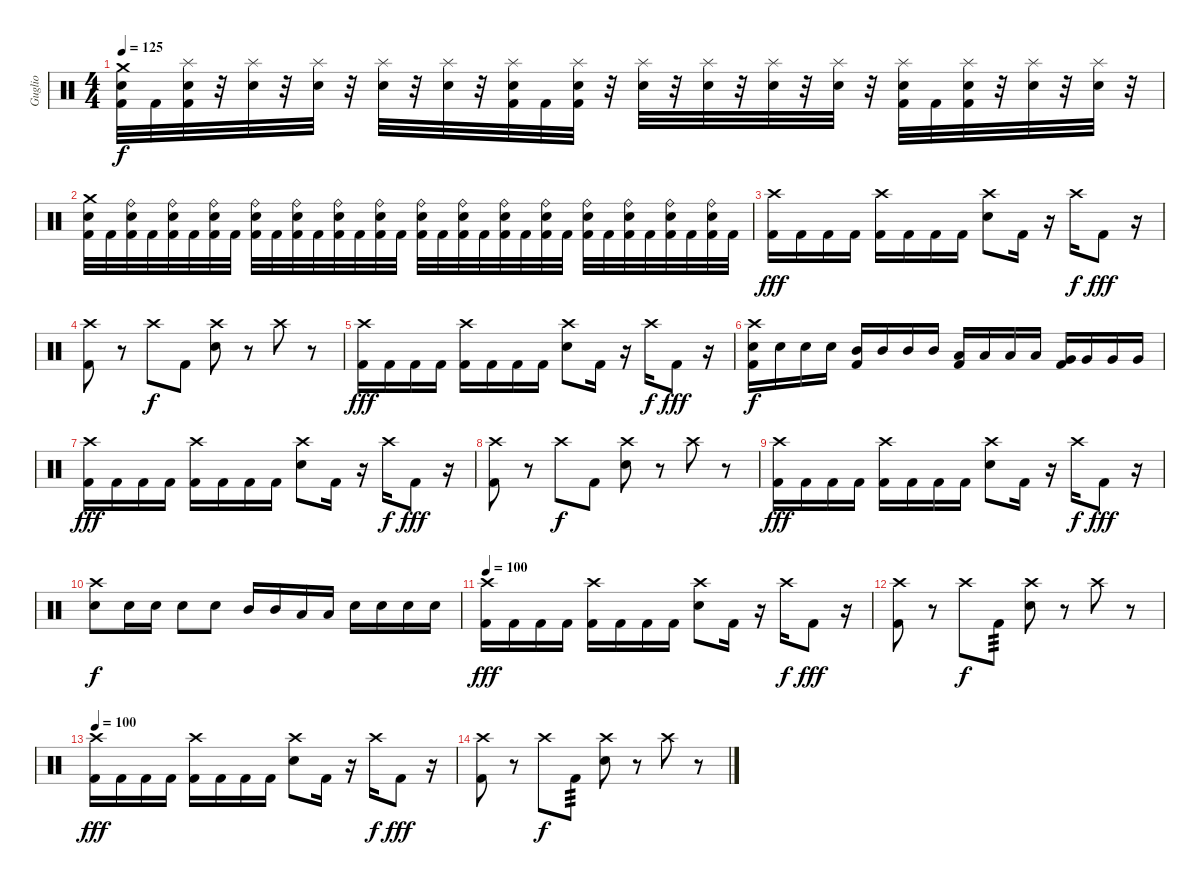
\track ("Guglio" "Guglio") {instrument percussion}
\staff {score}
\articulation defaults
\ts (4 4)
\tempo 125
\clef neutral
\ks c
("Crash medium (hit)" "Electric Snare (hit)" "Kick (hit) 2").32{dy f} "Kick (hit) 2".32 ("Splash (hit)" "Electric Snare (hit)" "Kick (hit) 2").32 r.32 ("Splash (hit)" "Electric Snare (hit)").32 r.32 ("Splash (hit)" "Electric Snare (hit)").32 r.32 ("Splash (hit)" "Electric Snare (hit)").32 r.32 ("Splash (hit)" "Electric Snare (hit)").32 r.32 ("Splash (hit)" "Electric Snare (hit)" "Kick (hit) 2").32 "Kick (hit) 2".32 ("Splash (hit)" "Electric Snare (hit)" "Kick (hit) 2").32 r.32 ("Splash (hit)" "Electric Snare (hit)").32 r.32 ("Splash (hit)" "Electric Snare (hit)").32 r.32 ("Splash (hit)" "Electric Snare (hit)").32 r.32 ("Splash (hit)" "Electric Snare (hit)").32 r.32 ("Splash (hit)" "Electric Snare (hit)" "Kick (hit) 2").32 "Kick (hit) 2".32 ("Splash (hit)" "Electric Snare (hit)" "Kick (hit) 2").32 r.32 ("Splash (hit)" "Electric Snare (hit)").32 r.32 ("Splash (hit)" "Electric Snare (hit)").32 r.32 |
("Crash medium (hit)" "Electric Snare (hit)" "Kick (hit) 2").32 "Kick (hit) 2".32 ("Ride (bell)" "Electric Snare (hit)" "Kick (hit) 2").32 "Kick (hit) 2".32 ("Ride (bell)" "Electric Snare (hit)" "Kick (hit) 2").32 "Kick (hit) 2".32 ("Ride (bell)" "Electric Snare (hit)" "Kick (hit) 2").32 "Kick (hit) 2".32 ("Ride (bell)" "Electric Snare (hit)" "Kick (hit) 2").32 "Kick (hit) 2".32 ("Ride (bell)" "Electric Snare (hit)" "Kick (hit) 2").32 "Kick (hit) 2".32 ("Ride (bell)" "Electric Snare (hit)" "Kick (hit) 2").32 "Kick (hit) 2".32 ("Ride (bell)" "Electric Snare (hit)" "Kick (hit) 2").32 "Kick (hit) 2".32 ("Ride (bell)" "Electric Snare (hit)" "Kick (hit) 2").32 "Kick (hit) 2".32 ("Ride (bell)" "Electric Snare (hit)" "Kick (hit) 2").32 "Kick (hit) 2".32 ("Ride (bell)" "Electric Snare (hit)" "Kick (hit) 2").32 "Kick (hit) 2".32 ("Ride (bell)" "Electric Snare (hit)" "Kick (hit) 2").32 "Kick (hit) 2".32 ("Ride (bell)" "Electric Snare (hit)" "Kick (hit) 2").32 "Kick (hit) 2".32 ("Ride (bell)" "Electric Snare (hit)" "Kick (hit) 2").32 "Kick (hit) 2".32 ("Ride (bell)" "Electric Snare (hit)" "Kick (hit) 2").32 "Kick (hit) 2".32 ("Ride (bell)" "Electric Snare (hit)" "Kick (hit) 2").32 "Kick (hit) 2".32 |
("Crash high (hit)" "Kick (hit) 2").16{dy fff} "Kick (hit) 2".16 "Kick (hit) 2".16 "Kick (hit) 2".16 ("Crash high (hit)" "Kick (hit) 2").16 "Kick (hit) 2".16 "Kick (hit) 2".16 "Kick (hit) 2".16 ("Crash high (hit)" "Electric Snare (hit)").8 "Kick (hit) 2".16 r.16 "Crash high (hit)".16{dy f} "Kick (hit) 2".8{dy fff} r.16 |
("Crash high (hit)" "Kick (hit) 2").8 r.8 "Crash high (hit)".8{dy f} "Kick (hit) 2".8 ("Crash high (hit)" "Electric Snare (hit)").8 r.8 "Crash high (hit)".8 r.8 |
("Crash high (hit)" "Kick (hit) 2").16{dy fff} "Kick (hit) 2".16 "Kick (hit) 2".16 "Kick (hit) 2".16 ("Crash high (hit)" "Kick (hit) 2").16 "Kick (hit) 2".16 "Kick (hit) 2".16 "Kick (hit) 2".16 ("Crash high (hit)" "Electric Snare (hit)").8 "Kick (hit) 2".16 r.16 "Crash high (hit)".16{dy f} "Kick (hit) 2".8{dy fff} r.16 |
("Crash high (hit)" "Electric Snare (hit)" "Kick (hit) 2").16{dy f} "Electric Snare (hit)".16 "Electric Snare (hit)".16 "Electric Snare (hit)".16 ("Mid Tom (hit)" "Kick (hit) 2").16 "Mid Tom (hit)".16 "Mid Tom (hit)".16 "Mid Tom (hit)".16 ("Low Tom (hit)" "Kick (hit) 2").16 "Low Tom (hit)".16 "Low Tom (hit)".16 "Low Tom (hit)".16 ("Very Low Tom (hit)" "Kick (hit) 2").16 "Very Low Tom (hit)".16 "Very Low Tom (hit)".16 "Very Low Tom (hit)".16 |
("Crash high (hit)" "Kick (hit) 2").16{dy fff} "Kick (hit) 2".16 "Kick (hit) 2".16 "Kick (hit) 2".16 ("Crash high (hit)" "Kick (hit) 2").16 "Kick (hit) 2".16 "Kick (hit) 2".16 "Kick (hit) 2".16 ("Crash high (hit)" "Electric Snare (hit)").8 "Kick (hit) 2".16 r.16 "Crash high (hit)".16{dy f} "Kick (hit) 2".8{dy fff} r.16 |
("Crash high (hit)" "Kick (hit) 2").8 r.8 "Crash high (hit)".8{dy f} "Kick (hit) 2".8 ("Crash high (hit)" "Electric Snare (hit)").8 r.8 "Crash high (hit)".8 r.8 |
("Crash high (hit)" "Kick (hit) 2").16{dy fff} "Kick (hit) 2".16 "Kick (hit) 2".16 "Kick (hit) 2".16 ("Crash high (hit)" "Kick (hit) 2").16 "Kick (hit) 2".16 "Kick (hit) 2".16 "Kick (hit) 2".16 ("Crash high (hit)" "Electric Snare (hit)").8 "Kick (hit) 2".16 r.16 "Crash high (hit)".16{dy f} "Kick (hit) 2".8{dy fff} r.16 |
("Crash high (hit)" "Electric Snare (hit)").8{dy f} "Electric Snare (hit)".16 "Electric Snare (hit)".16 "Electric Snare (hit)".8 "Electric Snare (hit)".8 "Mid Tom (hit)".16 "Mid Tom (hit)".16 "Low Tom (hit)".16 "Low Tom (hit)".16 "Electric Snare (hit)".16 "Electric Snare (hit)".16 "Electric Snare (hit)".16 "Electric Snare (hit)".16 |
\tempo 100
("Crash high (hit)" "Kick (hit) 2").16{dy fff} "Kick (hit) 2".16 "Kick (hit) 2".16 "Kick (hit) 2".16 ("Crash high (hit)" "Kick (hit) 2").16 "Kick (hit) 2".16 "Kick (hit) 2".16 "Kick (hit) 2".16 ("Crash high (hit)" "Electric Snare (hit)").8 "Kick (hit) 2".16 r.16 "Crash high (hit)".16{dy f} "Kick (hit) 2".8{dy fff} r.16 |
("Crash high (hit)" "Kick (hit) 2").8 r.8 "Crash high (hit)".8{dy f} "Kick (hit) 2".8{tp 3} ("Crash high (hit)" "Electric Snare (hit)").8 r.8 "Crash high (hit)".8 r.8 |
\tempo 100
("Crash high (hit)" "Kick (hit) 2").16{dy fff} "Kick (hit) 2".16 "Kick (hit) 2".16 "Kick (hit) 2".16 ("Crash high (hit)" "Kick (hit) 2").16 "Kick (hit) 2".16 "Kick (hit) 2".16 "Kick (hit) 2".16 ("Crash high (hit)" "Electric Snare (hit)").8 "Kick (hit) 2".16 r.16 "Crash high (hit)".16{dy f} "Kick (hit) 2".8{dy fff} r.16 |
("Crash high (hit)" "Kick (hit) 2").8 r.8 "Crash high (hit)".8{dy f} "Kick (hit) 2".8{tp 3} ("Crash high (hit)" "Electric Snare (hit)").8 r.8 "Crash high (hit)".8 r.8
